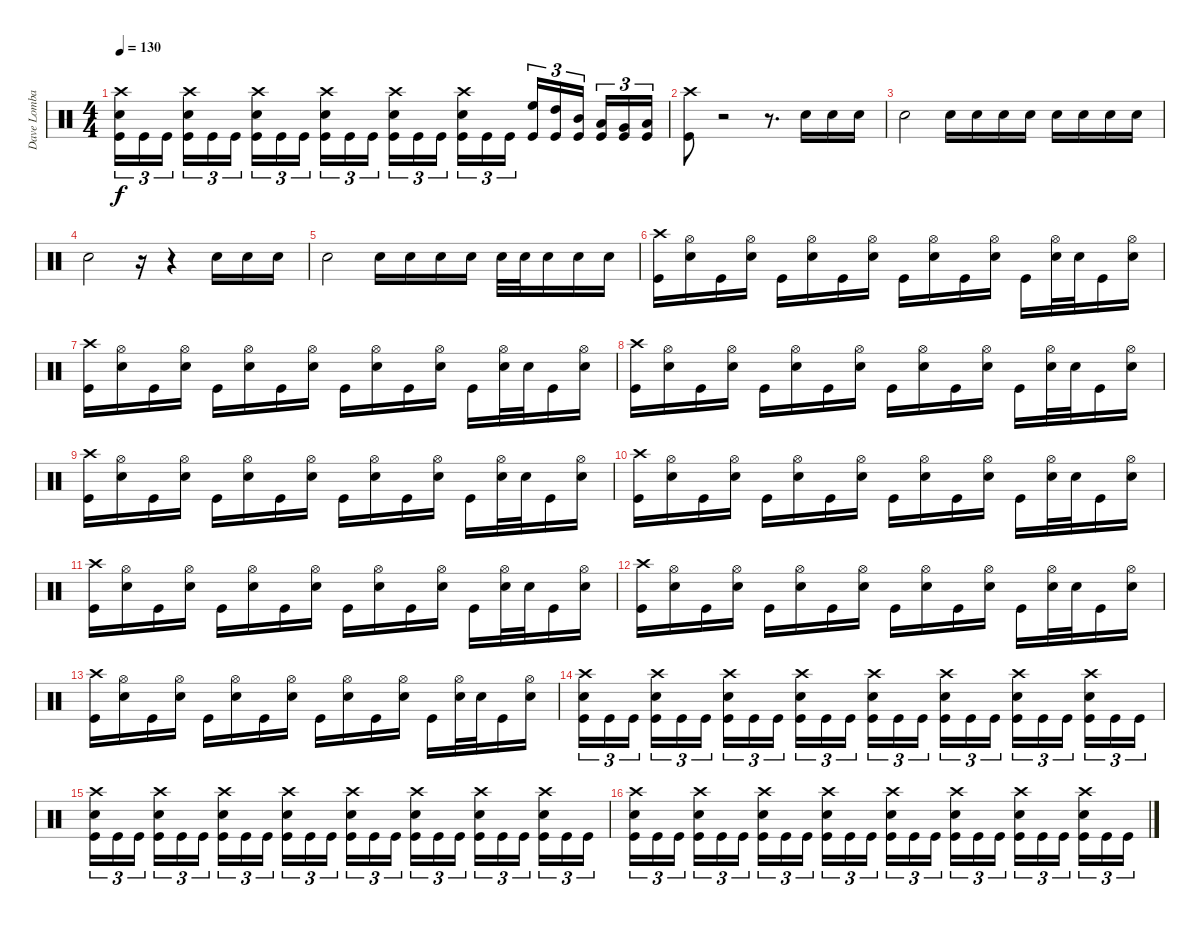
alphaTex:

\track ("Dave Lombardo" "Dave Lomba") {instrument percussion}
\staff {score}
\articulation defaults
\ts (4 4)
\tempo 130
\clef neutral
\ks c
("Crash high (hit)" "Electric Snare (hit)" "Kick (hit)").16{tu (3 2) dy f} "Kick (hit)".16{tu (3 2)} "Kick (hit)".16{tu (3 2)} ("Crash high (hit)" "Electric Snare (hit)" "Kick (hit)").16{tu (3 2)} "Kick (hit)".16{tu (3 2)} "Kick (hit)".16{tu (3 2)} ("Crash high (hit)" "Electric Snare (hit)" "Kick (hit)").16{tu (3 2)} "Kick (hit)".16{tu (3 2)} "Kick (hit)".16{tu (3 2)} ("Crash high (hit)" "Electric Snare (hit)" "Kick (hit)").16{tu (3 2)} "Kick (hit)".16{tu (3 2)} "Kick (hit)".16{tu (3 2)} ("Crash high (hit)" "Electric Snare (hit)" "Kick (hit)").16{tu (3 2)} "Kick (hit)".16{tu (3 2)} "Kick (hit)".16{tu (3 2)} ("Crash high (hit)" "Electric Snare (hit)" "Kick (hit)").16{tu (3 2)} "Kick (hit)".16{tu (3 2)} "Kick (hit)".16{tu (3 2)} ("High Floor Tom (hit)" "Kick (hit)").16{tu (3 2)} ("High Tom (hit)" "Kick (hit)").16{tu (3 2)} ("Mid Tom (hit)" "Kick (hit)").16{tu (3 2)} ("Low Tom (hit)" "Kick (hit)").16{tu (3 2)} ("Very Low Tom (hit)" "Kick (hit)").16{tu (3 2)} ("Low Floor Tom (hit)" "Kick (hit)").16{tu (3 2)} |
("Crash high (hit)" "Kick (hit)").8 r.2 r.8{d} "Electric Snare (hit)".16 "Electric Snare (hit)".16 "Electric Snare (hit)".16 |
"Electric Snare (hit)".2 "Electric Snare (hit)".16 "Electric Snare (hit)".16 "Electric Snare (hit)".16 "Electric Snare (hit)".16 "Electric Snare (hit)".16 "Electric Snare (hit)".16 "Electric Snare (hit)".16 "Electric Snare (hit)".16 |
"Electric Snare (hit)".2 r.16 r.4 "Electric Snare (hit)".16 "Electric Snare (hit)".16 "Electric Snare (hit)".16 |
"Electric Snare (hit)".2 "Electric Snare (hit)".16 "Electric Snare (hit)".16 "Electric Snare (hit)".16 "Electric Snare (hit)".16 "Electric Snare (hit)".32 "Electric Snare (hit)".32 "Electric Snare (hit)".16 "Electric Snare (hit)".16 "Electric Snare (hit)".16 |
("Crash high (hit)" "Kick (hit)").16 ("Hi-Hat (open)" "Electric Snare (hit)").16 "Kick (hit)".16 ("Hi-Hat (open)" "Electric Snare (hit)").16 "Kick (hit)".16 ("Hi-Hat (open)" "Electric Snare (hit)").16 "Kick (hit)".16 ("Hi-Hat (open)" "Electric Snare (hit)").16 "Kick (hit)".16 ("Hi-Hat (open)" "Electric Snare (hit)").16 "Kick (hit)".16 ("Hi-Hat (open)" "Electric Snare (hit)").16 "Kick (hit)".16 ("Hi-Hat (open)" "Electric Snare (hit)").32 "Electric Snare (hit)".32 "Kick (hit)".16 ("Hi-Hat (open)" "Electric Snare (hit)").16 |
("Crash high (hit)" "Kick (hit)").16 ("Hi-Hat (open)" "Electric Snare (hit)").16 "Kick (hit)".16 ("Hi-Hat (open)" "Electric Snare (hit)").16 "Kick (hit)".16 ("Hi-Hat (open)" "Electric Snare (hit)").16 "Kick (hit)".16 ("Hi-Hat (open)" "Electric Snare (hit)").16 "Kick (hit)".16 ("Hi-Hat (open)" "Electric Snare (hit)").16 "Kick (hit)".16 ("Hi-Hat (open)" "Electric Snare (hit)").16 "Kick (hit)".16 ("Hi-Hat (open)" "Electric Snare (hit)").32 "Electric Snare (hit)".32 "Kick (hit)".16 ("Hi-Hat (open)" "Electric Snare (hit)").16 |
("Crash high (hit)" "Kick (hit)").16 ("Hi-Hat (open)" "Electric Snare (hit)").16 "Kick (hit)".16 ("Hi-Hat (open)" "Electric Snare (hit)").16 "Kick (hit)".16 ("Hi-Hat (open)" "Electric Snare (hit)").16 "Kick (hit)".16 ("Hi-Hat (open)" "Electric Snare (hit)").16 "Kick (hit)".16 ("Hi-Hat (open)" "Electric Snare (hit)").16 "Kick (hit)".16 ("Hi-Hat (open)" "Electric Snare (hit)").16 "Kick (hit)".16 ("Hi-Hat (open)" "Electric Snare (hit)").32 "Electric Snare (hit)".32 "Kick (hit)".16 ("Hi-Hat (open)" "Electric Snare (hit)").16 |
("Crash high (hit)" "Kick (hit)").16 ("Hi-Hat (open)" "Electric Snare (hit)").16 "Kick (hit)".16 ("Hi-Hat (open)" "Electric Snare (hit)").16 "Kick (hit)".16 ("Hi-Hat (open)" "Electric Snare (hit)").16 "Kick (hit)".16 ("Hi-Hat (open)" "Electric Snare (hit)").16 "Kick (hit)".16 ("Hi-Hat (open)" "Electric Snare (hit)").16 "Kick (hit)".16 ("Hi-Hat (open)" "Electric Snare (hit)").16 "Kick (hit)".16 ("Hi-Hat (open)" "Electric Snare (hit)").32 "Electric Snare (hit)".32 "Kick (hit)".16 ("Hi-Hat (open)" "Electric Snare (hit)").16 |
("Crash high (hit)" "Kick (hit)").16 ("Hi-Hat (open)" "Electric Snare (hit)").16 "Kick (hit)".16 ("Hi-Hat (open)" "Electric Snare (hit)").16 "Kick (hit)".16 ("Hi-Hat (open)" "Electric Snare (hit)").16 "Kick (hit)".16 ("Hi-Hat (open)" "Electric Snare (hit)").16 "Kick (hit)".16 ("Hi-Hat (open)" "Electric Snare (hit)").16 "Kick (hit)".16 ("Hi-Hat (open)" "Electric Snare (hit)").16 "Kick (hit)".16 ("Hi-Hat (open)" "Electric Snare (hit)").32 "Electric Snare (hit)".32 "Kick (hit)".16 ("Hi-Hat (open)" "Electric Snare (hit)").16 |
("Crash high (hit)" "Kick (hit)").16 ("Hi-Hat (open)" "Electric Snare (hit)").16 "Kick (hit)".16 ("Hi-Hat (open)" "Electric Snare (hit)").16 "Kick (hit)".16 ("Hi-Hat (open)" "Electric Snare (hit)").16 "Kick (hit)".16 ("Hi-Hat (open)" "Electric Snare (hit)").16 "Kick (hit)".16 ("Hi-Hat (open)" "Electric Snare (hit)").16 "Kick (hit)".16 ("Hi-Hat (open)" "Electric Snare (hit)").16 "Kick (hit)".16 ("Hi-Hat (open)" "Electric Snare (hit)").32 "Electric Snare (hit)".32 "Kick (hit)".16 ("Hi-Hat (open)" "Electric Snare (hit)").16 |
("Crash high (hit)" "Kick (hit)").16 ("Hi-Hat (open)" "Electric Snare (hit)").16 "Kick (hit)".16 ("Hi-Hat (open)" "Electric Snare (hit)").16 "Kick (hit)".16 ("Hi-Hat (open)" "Electric Snare (hit)").16 "Kick (hit)".16 ("Hi-Hat (open)" "Electric Snare (hit)").16 "Kick (hit)".16 ("Hi-Hat (open)" "Electric Snare (hit)").16 "Kick (hit)".16 ("Hi-Hat (open)" "Electric Snare (hit)").16 "Kick (hit)".16 ("Hi-Hat (open)" "Electric Snare (hit)").32 "Electric Snare (hit)".32 "Kick (hit)".16 ("Hi-Hat (open)" "Electric Snare (hit)").16 |
("Crash high (hit)" "Kick (hit)").16 ("Hi-Hat (open)" "Electric Snare (hit)").16 "Kick (hit)".16 ("Hi-Hat (open)" "Electric Snare (hit)").16 "Kick (hit)".16 ("Hi-Hat (open)" "Electric Snare (hit)").16 "Kick (hit)".16 ("Hi-Hat (open)" "Electric Snare (hit)").16 "Kick (hit)".16 ("Hi-Hat (open)" "Electric Snare (hit)").16 "Kick (hit)".16 ("Hi-Hat (open)" "Electric Snare (hit)").16 "Kick (hit)".16 ("Hi-Hat (open)" "Electric Snare (hit)").32 "Electric Snare (hit)".32 "Kick (hit)".16 ("Hi-Hat (open)" "Electric Snare (hit)").16 |
("Crash high (hit)" "Electric Snare (hit)" "Kick (hit)").16{tu (3 2)} "Kick (hit)".16{tu (3 2)} "Kick (hit)".16{tu (3 2)} ("Crash high (hit)" "Electric Snare (hit)" "Kick (hit)").16{tu (3 2)} "Kick (hit)".16{tu (3 2)} "Kick (hit)".16{tu (3 2)} ("Crash high (hit)" "Electric Snare (hit)" "Kick (hit)").16{tu (3 2)} "Kick (hit)".16{tu (3 2)} "Kick (hit)".16{tu (3 2)} ("Crash high (hit)" "Electric Snare (hit)" "Kick (hit)").16{tu (3 2)} "Kick (hit)".16{tu (3 2)} "Kick (hit)".16{tu (3 2)} ("Crash high (hit)" "Electric Snare (hit)" "Kick (hit)").16{tu (3 2)} "Kick (hit)".16{tu (3 2)} "Kick (hit)".16{tu (3 2)} ("Crash high (hit)" "Electric Snare (hit)" "Kick (hit)").16{tu (3 2)} "Kick (hit)".16{tu (3 2)} "Kick (hit)".16{tu (3 2)} ("Crash high (hit)" "Electric Snare (hit)" "Kick (hit)").16{tu (3 2)} "Kick (hit)".16{tu (3 2)} "Kick (hit)".16{tu (3 2)} ("Crash high (hit)" "Electric Snare (hit)" "Kick (hit)").16{tu (3 2)} "Kick (hit)".16{tu (3 2)} "Kick (hit)".16{tu (3 2)} |
("Crash high (hit)" "Electric Snare (hit)" "Kick (hit)").16{tu (3 2)} "Kick (hit)".16{tu (3 2)} "Kick (hit)".16{tu (3 2)} ("Crash high (hit)" "Electric Snare (hit)" "Kick (hit)").16{tu (3 2)} "Kick (hit)".16{tu (3 2)} "Kick (hit)".16{tu (3 2)} ("Crash high (hit)" "Electric Snare (hit)" "Kick (hit)").16{tu (3 2)} "Kick (hit)".16{tu (3 2)} "Kick (hit)".16{tu (3 2)} ("Crash high (hit)" "Electric Snare (hit)" "Kick (hit)").16{tu (3 2)} "Kick (hit)".16{tu (3 2)} "Kick (hit)".16{tu (3 2)} ("Crash high (hit)" "Electric Snare (hit)" "Kick (hit)").16{tu (3 2)} "Kick (hit)".16{tu (3 2)} "Kick (hit)".16{tu (3 2)} ("Crash high (hit)" "Electric Snare (hit)" "Kick (hit)").16{tu (3 2)} "Kick (hit)".16{tu (3 2)} "Kick (hit)".16{tu (3 2)} ("Crash high (hit)" "Electric Snare (hit)" "Kick (hit)").16{tu (3 2)} "Kick (hit)".16{tu (3 2)} "Kick (hit)".16{tu (3 2)} ("Crash high (hit)" "Electric Snare (hit)" "Kick (hit)").16{tu (3 2)} "Kick (hit)".16{tu (3 2)} "Kick (hit)".16{tu (3 2)} |
("Crash high (hit)" "Electric Snare (hit)" "Kick (hit)").16{tu (3 2)} "Kick (hit)".16{tu (3 2)} "Kick (hit)".16{tu (3 2)} ("Crash high (hit)" "Electric Snare (hit)" "Kick (hit)").16{tu (3 2)} "Kick (hit)".16{tu (3 2)} "Kick (hit)".16{tu (3 2)} ("Crash high (hit)" "Electric Snare (hit)" "Kick (hit)").16{tu (3 2)} "Kick (hit)".16{tu (3 2)} "Kick (hit)".16{tu (3 2)} ("Crash high (hit)" "Electric Snare (hit)" "Kick (hit)").16{tu (3 2)} "Kick (hit)".16{tu (3 2)} "Kick (hit)".16{tu (3 2)} ("Crash high (hit)" "Electric Snare (hit)" "Kick (hit)").16{tu (3 2)} "Kick (hit)".16{tu (3 2)} "Kick (hit)".16{tu (3 2)} ("Crash high (hit)" "Electric Snare (hit)" "Kick (hit)").16{tu (3 2)} "Kick (hit)".16{tu (3 2)} "Kick (hit)".16{tu (3 2)} ("Crash high (hit)" "Electric Snare (hit)" "Kick (hit)").16{tu (3 2)} "Kick (hit)".16{tu (3 2)} "Kick (hit)".16{tu (3 2)} ("Crash high (hit)" "Electric Snare (hit)" "Kick (hit)").16{tu (3 2)} "Kick (hit)".16{tu (3 2)} "Kick (hit)".16{tu (3 2)}
